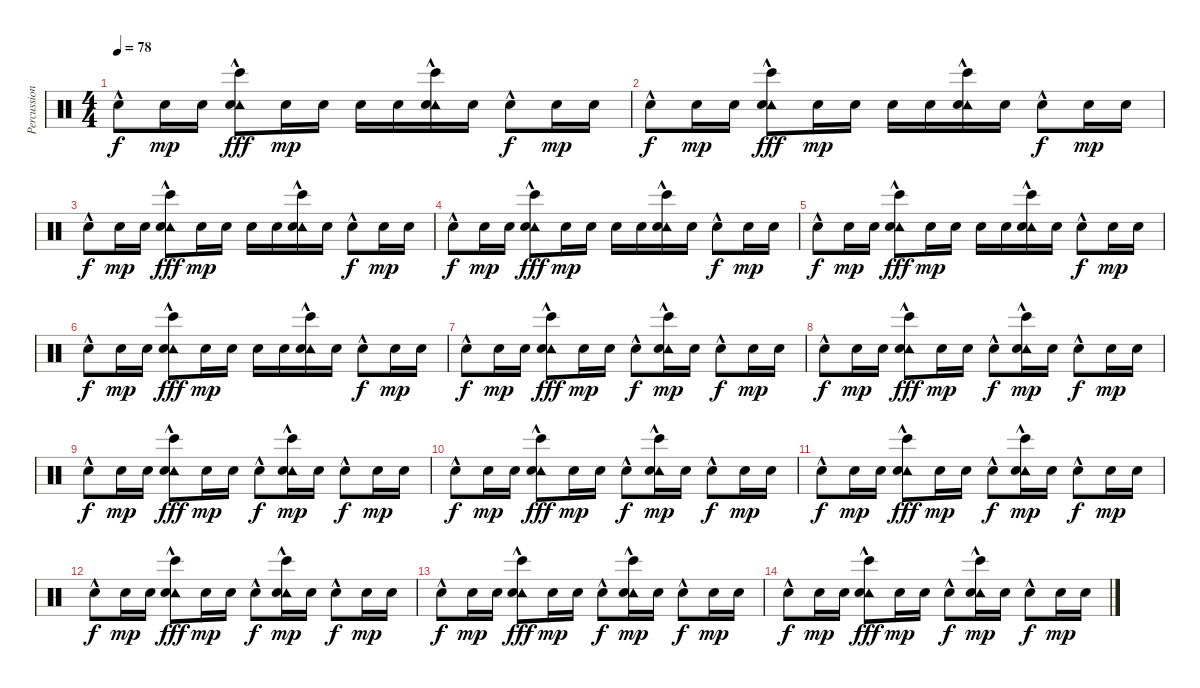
\track ("Percussion" "Percussion") {instrument percussion}
\staff {score}
\articulation defaults
\ts (4 4)
\tempo 78
\clef neutral
\ks c "Snare (hit) 2"{hac}.8{dy f} "Snare (hit) 2".16{dy mp} "Snare (hit) 2".16
("Bongo High (hit)"{hac} "Tambourine (hit)"{hac} "Snare (hit) 2"{hac}).8{dy fff} "Snare (hit) 2".16{dy mp} "Snare (hit) 2".16 "Snare (hit) 2".16 "Snare (hit) 2".16 ("Bongo High (hit)"{hac} "Tambourine (hit)"{hac} "Snare (hit) 2").16 "Snare (hit) 2".16 "Snare (hit) 2"{hac}.8{dy f} "Snare (hit) 2".16{dy mp} "Snare (hit) 2".16 |
"Snare (hit) 2"{hac}.8{dy f} "Snare (hit) 2".16{dy mp} "Snare (hit) 2".16 ("Bongo High (hit)"{hac} "Tambourine (hit)"{hac} "Snare (hit) 2"{hac}).8{dy fff} "Snare (hit) 2".16{dy mp} "Snare (hit) 2".16 "Snare (hit) 2".16 "Snare (hit) 2".16 ("Bongo High (hit)"{hac} "Tambourine (hit)"{hac} "Snare (hit) 2").16 "Snare (hit) 2".16 "Snare (hit) 2"{hac}.8{dy f} "Snare (hit) 2".16{dy mp} "Snare (hit) 2".16 |
"Snare (hit) 2"{hac}.8{dy f} "Snare (hit) 2".16{dy mp} "Snare (hit) 2".16 ("Bongo High (hit)"{hac} "Tambourine (hit)"{hac} "Snare (hit) 2"{hac}).8{dy fff} "Snare (hit) 2".16{dy mp} "Snare (hit) 2".16 "Snare (hit) 2".16 "Snare (hit) 2".16 ("Bongo High (hit)"{hac} "Tambourine (hit)"{hac} "Snare (hit) 2").16 "Snare (hit) 2".16 "Snare (hit) 2"{hac}.8{dy f} "Snare (hit) 2".16{dy mp} "Snare (hit) 2".16 |
"Snare (hit) 2"{hac}.8{dy f} "Snare (hit) 2".16{dy mp} "Snare (hit) 2".16 ("Bongo High (hit)"{hac} "Tambourine (hit)"{hac} "Snare (hit) 2"{hac}).8{dy fff} "Snare (hit) 2".16{dy mp} "Snare (hit) 2".16 "Snare (hit) 2".16 "Snare (hit) 2".16 ("Bongo High (hit)"{hac} "Tambourine (hit)"{hac} "Snare (hit) 2").16 "Snare (hit) 2".16 "Snare (hit) 2"{hac}.8{dy f} "Snare (hit) 2".16{dy mp} "Snare (hit) 2".16 |
"Snare (hit) 2"{hac}.8{dy f} "Snare (hit) 2".16{dy mp} "Snare (hit) 2".16 ("Bongo High (hit)"{hac} "Tambourine (hit)"{hac} "Snare (hit) 2"{hac}).8{dy fff} "Snare (hit) 2".16{dy mp} "Snare (hit) 2".16 "Snare (hit) 2".16 "Snare (hit) 2".16 ("Bongo High (hit)"{hac} "Tambourine (hit)"{hac} "Snare (hit) 2").16 "Snare (hit) 2".16 "Snare (hit) 2"{hac}.8{dy f} "Snare (hit) 2".16{dy mp} "Snare (hit) 2".16 |
"Snare (hit) 2"{hac}.8{dy f} "Snare (hit) 2".16{dy mp} "Snare (hit) 2".16 ("Bongo High (hit)"{hac} "Tambourine (hit)"{hac} "Snare (hit) 2"{hac}).8{dy fff} "Snare (hit) 2".16{dy mp} "Snare (hit) 2".16 "Snare (hit) 2".16 "Snare (hit) 2".16 ("Bongo High (hit)"{hac} "Tambourine (hit)"{hac} "Snare (hit) 2").16 "Snare (hit) 2".16 "Snare (hit) 2"{hac}.8{dy f} "Snare (hit) 2".16{dy mp} "Snare (hit) 2".16 |
"Snare (hit) 2"{hac}.8{dy f} "Snare (hit) 2".16{dy mp} "Snare (hit) 2".16 ("Bongo High (hit)"{hac} "Tambourine (hit)"{hac} "Snare (hit) 2"{hac}).8{dy fff} "Snare (hit) 2".16{dy mp} "Snare (hit) 2".16 "Snare (hit) 2"{hac}.8{dy f} ("Bongo High (hit)"{hac} "Tambourine (hit)"{hac} "Snare (hit) 2").16{dy mp} "Snare (hit) 2".16 "Snare (hit) 2"{hac}.8{dy f} "Snare (hit) 2".16{dy mp} "Snare (hit) 2".16 |
"Snare (hit) 2"{hac}.8{dy f} "Snare (hit) 2".16{dy mp} "Snare (hit) 2".16 ("Bongo High (hit)"{hac} "Tambourine (hit)"{hac} "Snare (hit) 2"{hac}).8{dy fff} "Snare (hit) 2".16{dy mp} "Snare (hit) 2".16 "Snare (hit) 2"{hac}.8{dy f} ("Bongo High (hit)"{hac} "Tambourine (hit)"{hac} "Snare (hit) 2").16{dy mp} "Snare (hit) 2".16 "Snare (hit) 2"{hac}.8{dy f} "Snare (hit) 2".16{dy mp} "Snare (hit) 2".16 |
"Snare (hit) 2"{hac}.8{dy f} "Snare (hit) 2".16{dy mp} "Snare (hit) 2".16 ("Bongo High (hit)"{hac} "Tambourine (hit)"{hac} "Snare (hit) 2"{hac}).8{dy fff} "Snare (hit) 2".16{dy mp} "Snare (hit) 2".16 "Snare (hit) 2"{hac}.8{dy f} ("Bongo High (hit)"{hac} "Tambourine (hit)"{hac} "Snare (hit) 2").16{dy mp} "Snare (hit) 2".16 "Snare (hit) 2"{hac}.8{dy f} "Snare (hit) 2".16{dy mp} "Snare (hit) 2".16 |
"Snare (hit) 2"{hac}.8{dy f} "Snare (hit) 2".16{dy mp} "Snare (hit) 2".16 ("Bongo High (hit)"{hac} "Tambourine (hit)"{hac} "Snare (hit) 2"{hac}).8{dy fff} "Snare (hit) 2".16{dy mp} "Snare (hit) 2".16 "Snare (hit) 2"{hac}.8{dy f} ("Bongo High (hit)"{hac} "Tambourine (hit)"{hac} "Snare (hit) 2").16{dy mp} "Snare (hit) 2".16 "Snare (hit) 2"{hac}.8{dy f} "Snare (hit) 2".16{dy mp} "Snare (hit) 2".16 |
"Snare (hit) 2"{hac}.8{dy f} "Snare (hit) 2".16{dy mp} "Snare (hit) 2".16 ("Bongo High (hit)"{hac} "Tambourine (hit)"{hac} "Snare (hit) 2"{hac}).8{dy fff} "Snare (hit) 2".16{dy mp} "Snare (hit) 2".16 "Snare (hit) 2"{hac}.8{dy f} ("Bongo High (hit)"{hac} "Tambourine (hit)"{hac} "Snare (hit) 2").16{dy mp} "Snare (hit) 2".16 "Snare (hit) 2"{hac}.8{dy f} "Snare (hit) 2".16{dy mp} "Snare (hit) 2".16 |
"Snare (hit) 2"{hac}.8{dy f} "Snare (hit) 2".16{dy mp} "Snare (hit) 2".16 ("Bongo High (hit)"{hac} "Tambourine (hit)"{hac} "Snare (hit) 2"{hac}).8{dy fff} "Snare (hit) 2".16{dy mp} "Snare (hit) 2".16 "Snare (hit) 2"{hac}.8{dy f} ("Bongo High (hit)"{hac} "Tambourine (hit)"{hac} "Snare (hit) 2").16{dy mp} "Snare (hit) 2".16 "Snare (hit) 2"{hac}.8{dy f} "Snare (hit) 2".16{dy mp} "Snare (hit) 2".16 |
"Snare (hit) 2"{hac}.8{dy f} "Snare (hit) 2".16{dy mp} "Snare (hit) 2".16 ("Bongo High (hit)"{hac} "Tambourine (hit)"{hac} "Snare (hit) 2"{hac}).8{dy fff} "Snare (hit) 2".16{dy mp} "Snare (hit) 2".16 "Snare (hit) 2"{hac}.8{dy f} ("Bongo High (hit)"{hac} "Tambourine (hit)"{hac} "Snare (hit) 2").16{dy mp} "Snare (hit) 2".16 "Snare (hit) 2"{hac}.8{dy f} "Snare (hit) 2".16{dy mp} "Snare (hit) 2".16 |
"Snare (hit) 2"{hac}.8{dy f} "Snare (hit) 2".16{dy mp} "Snare (hit) 2".16 ("Bongo High (hit)"{hac} "Tambourine (hit)"{hac} "Snare (hit) 2"{hac}).8{dy fff} "Snare (hit) 2".16{dy mp} "Snare (hit) 2".16 "Snare (hit) 2"{hac}.8{dy f} ("Bongo High (hit)"{hac} "Tambourine (hit)"{hac} "Snare (hit) 2").16{dy mp} "Snare (hit) 2".16 "Snare (hit) 2"{hac}.8{dy f} "Snare (hit) 2".16{dy mp} "Snare (hit) 2".16
